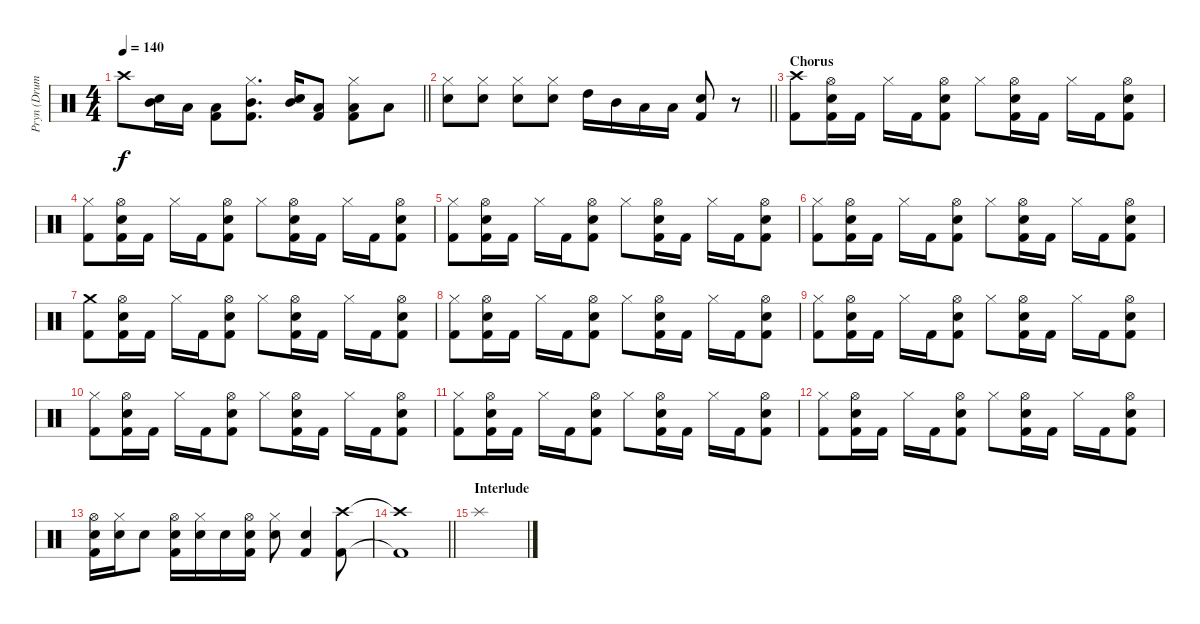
\track ("Pryn (Drums)" "Pryn (Drum") {instrument percussion}
\staff {score}
\articulation defaults
\ts (4 4)
\tempo 140
\clef neutral
\barLineRight lightlight
\ks c "Crash high (hit)".8{dy f}
("Mid Tom (hit)" "Snare (hit) 2").16 "Low Tom (hit)".16 ("Low Floor Tom (hit)" "Kick (hit) 2").8 ("Mid Tom (hit)" "Kick (hit) 2" "Hi-Hat (closed)").8{d} ("Mid Tom (hit)" "Snare (hit) 2").16 ("Low Tom (hit)" "Kick (hit) 2").8 ("Low Floor Tom (hit)" "Kick (hit) 2" "Hi-Hat (closed)").8 "Low Tom (hit)".8 |
\barLineRight lightlight
("Hi-Hat (closed)" "Snare (hit) 2").8 ("Hi-Hat (closed)" "Snare (hit) 2").8 ("Hi-Hat (closed)" "Snare (hit) 2").8 ("Hi-Hat (closed)" "Snare (hit) 2").8 "High Tom (hit)".16 "Mid Tom (hit)".16 "Low Tom (hit)".16 "Low Floor Tom (hit)".16 ("Kick (hit) 2" "Snare (hit) 2").8 r.8 |
\section ("" "Chorus")
("Crash high (hit)" "Kick (hit) 2").8 ("Snare (hit) 2" "Hi-Hat (open)" "Kick (hit) 2").16 "Kick (hit) 2".16 "Hi-Hat (closed)".16 "Kick (hit) 2".16 ("Snare (hit) 2" "Hi-Hat (open)" "Kick (hit) 2").8 "Hi-Hat (closed)".8 ("Snare (hit) 2" "Hi-Hat (open)" "Kick (hit) 2").16 "Kick (hit) 2".16 "Hi-Hat (closed)".16 "Kick (hit) 2".16 ("Snare (hit) 2" "Hi-Hat (open)" "Kick (hit) 2").8 |
("Kick (hit) 2" "Hi-Hat (closed)").8 ("Snare (hit) 2" "Hi-Hat (open)" "Kick (hit) 2").16 "Kick (hit) 2".16 "Hi-Hat (closed)".16 "Kick (hit) 2".16 ("Snare (hit) 2" "Hi-Hat (open)" "Kick (hit) 2").8 "Hi-Hat (closed)".8 ("Snare (hit) 2" "Hi-Hat (open)" "Kick (hit) 2").16 "Kick (hit) 2".16 "Hi-Hat (closed)".16 "Kick (hit) 2".16 ("Snare (hit) 2" "Hi-Hat (open)" "Kick (hit) 2").8 |
("Kick (hit) 2" "Hi-Hat (closed)").8 ("Snare (hit) 2" "Hi-Hat (open)" "Kick (hit) 2").16 "Kick (hit) 2".16 "Hi-Hat (closed)".16 "Kick (hit) 2".16 ("Snare (hit) 2" "Hi-Hat (open)" "Kick (hit) 2").8 "Hi-Hat (closed)".8 ("Snare (hit) 2" "Hi-Hat (open)" "Kick (hit) 2").16 "Kick (hit) 2".16 "Hi-Hat (closed)".16 "Kick (hit) 2".16 ("Snare (hit) 2" "Hi-Hat (open)" "Kick (hit) 2").8 |
("Kick (hit) 2" "Hi-Hat (closed)").8 ("Snare (hit) 2" "Hi-Hat (open)" "Kick (hit) 2").16 "Kick (hit) 2".16 "Hi-Hat (closed)".16 "Kick (hit) 2".16 ("Snare (hit) 2" "Hi-Hat (open)" "Kick (hit) 2").8 "Hi-Hat (closed)".8 ("Snare (hit) 2" "Hi-Hat (open)" "Kick (hit) 2").16 "Kick (hit) 2".16 "Hi-Hat (closed)".16 "Kick (hit) 2".16 ("Snare (hit) 2" "Hi-Hat (open)" "Kick (hit) 2").8 |
("Crash medium (hit)" "Kick (hit) 2").8 ("Snare (hit) 2" "Hi-Hat (open)" "Kick (hit) 2").16 "Kick (hit) 2".16 "Hi-Hat (closed)".16 "Kick (hit) 2".16 ("Snare (hit) 2" "Hi-Hat (open)" "Kick (hit) 2").8 "Hi-Hat (closed)".8 ("Snare (hit) 2" "Hi-Hat (open)" "Kick (hit) 2").16 "Kick (hit) 2".16 "Hi-Hat (closed)".16 "Kick (hit) 2".16 ("Snare (hit) 2" "Hi-Hat (open)" "Kick (hit) 2").8 |
("Kick (hit) 2" "Hi-Hat (closed)").8 ("Snare (hit) 2" "Hi-Hat (open)" "Kick (hit) 2").16 "Kick (hit) 2".16 "Hi-Hat (closed)".16 "Kick (hit) 2".16 ("Snare (hit) 2" "Hi-Hat (open)" "Kick (hit) 2").8 "Hi-Hat (closed)".8 ("Snare (hit) 2" "Hi-Hat (open)" "Kick (hit) 2").16 "Kick (hit) 2".16 "Hi-Hat (closed)".16 "Kick (hit) 2".16 ("Snare (hit) 2" "Hi-Hat (open)" "Kick (hit) 2").8 |
("Kick (hit) 2" "Hi-Hat (closed)").8 ("Snare (hit) 2" "Hi-Hat (open)" "Kick (hit) 2").16 "Kick (hit) 2".16 "Hi-Hat (closed)".16 "Kick (hit) 2".16 ("Snare (hit) 2" "Hi-Hat (open)" "Kick (hit) 2").8 "Hi-Hat (closed)".8 ("Snare (hit) 2" "Hi-Hat (open)" "Kick (hit) 2").16 "Kick (hit) 2".16 "Hi-Hat (closed)".16 "Kick (hit) 2".16 ("Snare (hit) 2" "Hi-Hat (open)" "Kick (hit) 2").8 |
("Kick (hit) 2" "Hi-Hat (closed)").8 ("Snare (hit) 2" "Hi-Hat (open)" "Kick (hit) 2").16 "Kick (hit) 2".16 "Hi-Hat (closed)".16 "Kick (hit) 2".16 ("Snare (hit) 2" "Hi-Hat (open)" "Kick (hit) 2").8 "Hi-Hat (closed)".8 ("Snare (hit) 2" "Hi-Hat (open)" "Kick (hit) 2").16 "Kick (hit) 2".16 "Hi-Hat (closed)".16 "Kick (hit) 2".16 ("Snare (hit) 2" "Hi-Hat (open)" "Kick (hit) 2").8 |
("Kick (hit) 2" "Hi-Hat (closed)").8 ("Snare (hit) 2" "Hi-Hat (open)" "Kick (hit) 2").16 "Kick (hit) 2".16 "Hi-Hat (closed)".16 "Kick (hit) 2".16 ("Snare (hit) 2" "Hi-Hat (open)" "Kick (hit) 2").8 "Hi-Hat (closed)".8 ("Snare (hit) 2" "Hi-Hat (open)" "Kick (hit) 2").16 "Kick (hit) 2".16 "Hi-Hat (closed)".16 "Kick (hit) 2".16 ("Snare (hit) 2" "Hi-Hat (open)" "Kick (hit) 2").8 |
("Kick (hit) 2" "Hi-Hat (closed)").8 ("Snare (hit) 2" "Hi-Hat (open)" "Kick (hit) 2").16 "Kick (hit) 2".16 "Hi-Hat (closed)".16 "Kick (hit) 2".16 ("Snare (hit) 2" "Hi-Hat (open)" "Kick (hit) 2").8 "Hi-Hat (closed)".8 ("Snare (hit) 2" "Hi-Hat (open)" "Kick (hit) 2").16 "Kick (hit) 2".16 "Hi-Hat (closed)".16 "Kick (hit) 2".16 ("Snare (hit) 2" "Hi-Hat (open)" "Kick (hit) 2").8 |
("Snare (hit) 2" "Hi-Hat (open)" "Kick (hit) 2").16 ("Snare (hit) 2" "Hi-Hat (closed)").16 "Snare (hit) 2".8 ("Snare (hit) 2" "Hi-Hat (open)" "Kick (hit) 2").16 ("Snare (hit) 2" "Hi-Hat (closed)").16 "Snare (hit) 2".16 ("Snare (hit) 2" "Hi-Hat (open)" "Kick (hit) 2").16 ("Snare (hit) 2" "Hi-Hat (closed)").8 ("Snare (hit) 2" "Kick (hit) 2").4 ("Crash high (hit)" "Kick (hit) 2").8 |
\barLineRight lightlight
("Crash high (hit)"{t} "Kick (hit) 2"{t}).1 |
\section ("" "Interlude")
"Splash (hit)".1
